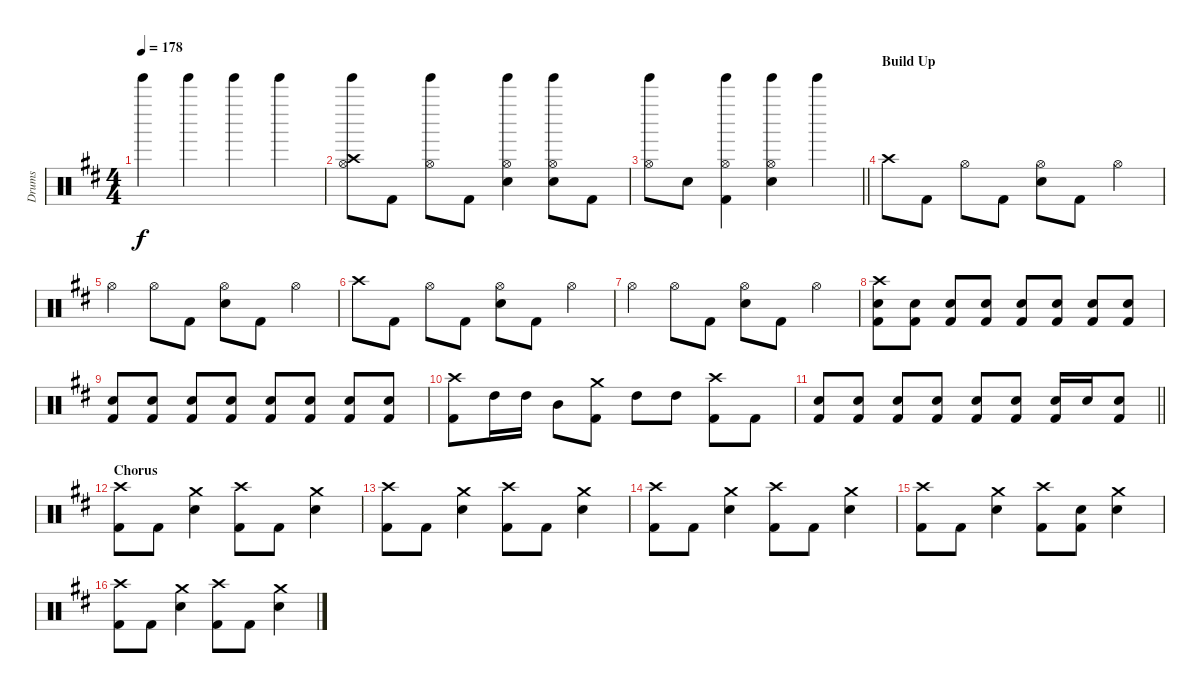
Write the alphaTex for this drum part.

\track ("Drums" "Drums") {instrument percussion}
\staff {score}
\articulation defaults
\ts (4 4)
\tempo 178
\clef neutral
\ks d "Tinkle Bell (hit)".4{dy f} "Tinkle Bell (hit)".4 "Tinkle Bell (hit)".4 "Tinkle Bell (hit)".4
|
("Tinkle Bell (hit)" "Crash high (hit)" "Hi-Hat (open)").8 "Kick (hit) 2".8 ("Tinkle Bell (hit)" "Hi-Hat (open)").8 "Kick (hit) 2".8 ("Tinkle Bell (hit)" "Snare (hit) 2" "Hi-Hat (open)").4 ("Tinkle Bell (hit)" "Snare (hit) 2" "Hi-Hat (open)").8 "Kick (hit) 2".8 |
\barLineRight lightlight
("Tinkle Bell (hit)" "Hi-Hat (open)").8 "Snare (hit) 2".8 ("Kick (hit) 2" "Tinkle Bell (hit)" "Hi-Hat (open)").4 ("Tinkle Bell (hit)" "Snare (hit) 2" "Hi-Hat (open)").4 "Tinkle Bell (hit)".4 |
\section ("" "Build Up")
"Crash high (hit)".8 "Kick (hit) 2".8 "Hi-Hat (open)".8 "Kick (hit) 2".8 ("Snare (hit) 2" "Hi-Hat (open)").8 "Kick (hit) 2".8 "Hi-Hat (open)".4 |
"Hi-Hat (open)".4 "Hi-Hat (open)".8 "Kick (hit) 2".8 ("Snare (hit) 2" "Hi-Hat (open)").8 "Kick (hit) 2".8 "Hi-Hat (open)".4 |
"Crash high (hit)".8 "Kick (hit) 2".8 "Hi-Hat (open)".8 "Kick (hit) 2".8 ("Snare (hit) 2" "Hi-Hat (open)").8 "Kick (hit) 2".8 "Hi-Hat (open)".4 |
"Hi-Hat (open)".4 "Hi-Hat (open)".8 "Kick (hit) 2".8 ("Snare (hit) 2" "Hi-Hat (open)").8 "Kick (hit) 2".8 "Hi-Hat (open)".4 |
("Kick (hit) 2" "Crash high (hit)" "Snare (hit) 2").8 ("Kick (hit) 2" "Snare (hit) 2").8 ("Kick (hit) 2" "Snare (hit) 2").8 ("Kick (hit) 2" "Snare (hit) 2").8 ("Kick (hit) 2" "Snare (hit) 2").8 ("Kick (hit) 2" "Snare (hit) 2").8 ("Kick (hit) 2" "Snare (hit) 2").8 ("Kick (hit) 2" "Snare (hit) 2").8 |
("Kick (hit) 2" "Snare (hit) 2").8 ("Kick (hit) 2" "Snare (hit) 2").8 ("Kick (hit) 2" "Snare (hit) 2").8 ("Kick (hit) 2" "Snare (hit) 2").8 ("Kick (hit) 2" "Snare (hit) 2").8 ("Kick (hit) 2" "Snare (hit) 2").8 ("Kick (hit) 2" "Snare (hit) 2").8 ("Kick (hit) 2" "Snare (hit) 2").8 |
("Kick (hit) 2" "Crash high (hit)").8 "High Tom (hit)".16 "High Tom (hit)".16 "Mid Tom (hit)".8 ("Kick (hit) 2" "Crash medium (hit)").8 "High Tom (hit)".8 "High Tom (hit)".8 ("Kick (hit) 2" "Crash high (hit)").8 "Kick (hit) 2".8 |
\barLineRight lightlight
("Kick (hit) 2" "Snare (hit) 2").8 ("Kick (hit) 2" "Snare (hit) 2").8 ("Kick (hit) 2" "Snare (hit) 2").8 ("Kick (hit) 2" "Snare (hit) 2").8 ("Kick (hit) 2" "Snare (hit) 2").8 ("Kick (hit) 2" "Snare (hit) 2").8 ("Kick (hit) 2" "Snare (hit) 2").16 "Snare (hit) 2".16 ("Kick (hit) 2" "Snare (hit) 2").8 |
\section ("" "Chorus")
("Kick (hit) 2" "Crash high (hit)").8 "Kick (hit) 2".8 ("Crash medium (hit)" "Snare (hit) 2").4 ("Kick (hit) 2" "Crash high (hit)").8 "Kick (hit) 2".8 ("Crash medium (hit)" "Snare (hit) 2").4 |
("Kick (hit) 2" "Crash high (hit)").8 "Kick (hit) 2".8 ("Crash medium (hit)" "Snare (hit) 2").4 ("Kick (hit) 2" "Crash high (hit)").8 "Kick (hit) 2".8 ("Crash medium (hit)" "Snare (hit) 2").4 |
("Kick (hit) 2" "Crash high (hit)").8 "Kick (hit) 2".8 ("Crash medium (hit)" "Snare (hit) 2").4 ("Kick (hit) 2" "Crash high (hit)").8 "Kick (hit) 2".8 ("Crash medium (hit)" "Snare (hit) 2").4 |
("Kick (hit) 2" "Crash high (hit)").8 "Kick (hit) 2".8 ("Crash medium (hit)" "Snare (hit) 2").4 ("Kick (hit) 2" "Crash high (hit)").8 ("Kick (hit) 2" "Snare (hit) 2").8 ("Crash medium (hit)" "Snare (hit) 2").4 |
("Kick (hit) 2" "Crash high (hit)").8 "Kick (hit) 2".8 ("Crash medium (hit)" "Snare (hit) 2").4 ("Kick (hit) 2" "Crash high (hit)").8 "Kick (hit) 2".8 ("Crash medium (hit)" "Snare (hit) 2").4
